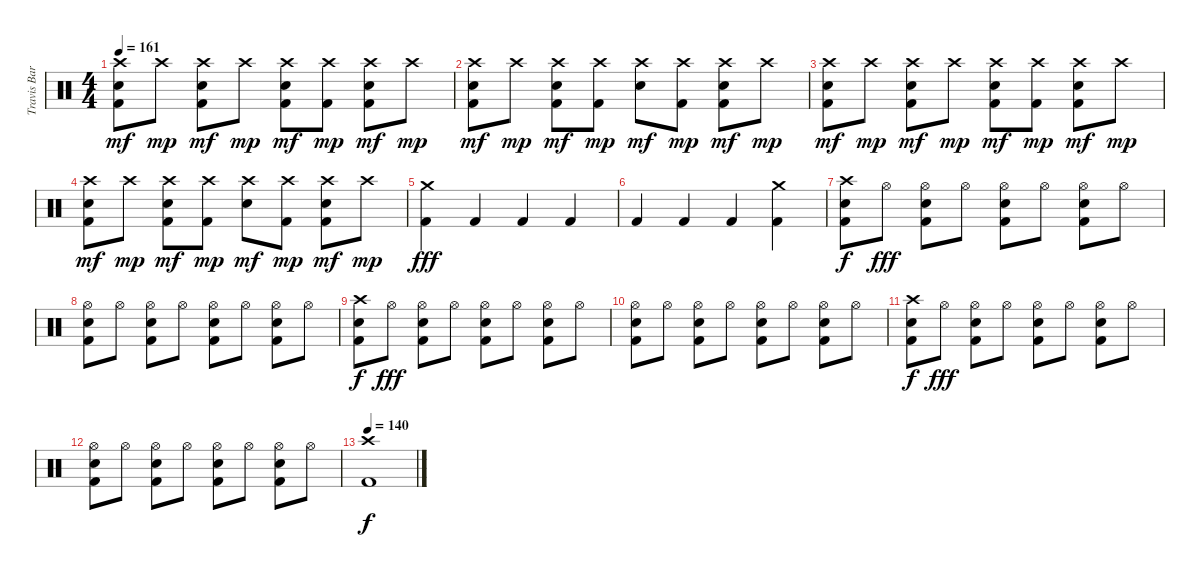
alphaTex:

\track ("Travis Barker - Drums" "Travis Bar") {instrument percussion}
\staff {score}
\articulation defaults
\ts (4 4)
\tempo 161
\clef neutral
\ks c
("Crash high (hit)" "Electric Snare (hit)" "Kick (hit) 2").8{dy mf} "Crash high (hit)".8{dy mp} ("Crash high (hit)" "Electric Snare (hit)" "Kick (hit) 2").8{dy mf} "Crash high (hit)".8{dy mp} ("Crash high (hit)" "Electric Snare (hit)" "Kick (hit) 2").8{dy mf} ("Crash high (hit)" "Kick (hit) 2").8{dy mp} ("Crash high (hit)" "Electric Snare (hit)" "Kick (hit) 2").8{dy mf} "Crash high (hit)".8{dy mp} |
("Crash high (hit)" "Electric Snare (hit)" "Kick (hit) 2").8{dy mf} "Crash high (hit)".8{dy mp} ("Crash high (hit)" "Electric Snare (hit)" "Kick (hit) 2").8{dy mf} ("Crash high (hit)" "Kick (hit) 2").8{dy mp} ("Crash high (hit)" "Electric Snare (hit)").8{dy mf} ("Crash high (hit)" "Kick (hit) 2").8{dy mp} ("Crash high (hit)" "Electric Snare (hit)" "Kick (hit) 2").8{dy mf} "Crash high (hit)".8{dy mp} |
("Crash high (hit)" "Electric Snare (hit)" "Kick (hit) 2").8{dy mf} "Crash high (hit)".8{dy mp} ("Crash high (hit)" "Electric Snare (hit)" "Kick (hit) 2").8{dy mf} "Crash high (hit)".8{dy mp} ("Crash high (hit)" "Electric Snare (hit)" "Kick (hit) 2").8{dy mf} ("Crash high (hit)" "Kick (hit) 2").8{dy mp} ("Crash high (hit)" "Electric Snare (hit)" "Kick (hit) 2").8{dy mf} "Crash high (hit)".8{dy mp} |
("Crash high (hit)" "Electric Snare (hit)" "Kick (hit) 2").8{dy mf} "Crash high (hit)".8{dy mp} ("Crash high (hit)" "Electric Snare (hit)" "Kick (hit) 2").8{dy mf} ("Crash high (hit)" "Kick (hit) 2").8{dy mp} ("Crash high (hit)" "Electric Snare (hit)").8{dy mf} ("Crash high (hit)" "Kick (hit) 2").8{dy mp} ("Crash high (hit)" "Electric Snare (hit)" "Kick (hit) 2").8{dy mf} "Crash high (hit)".8{dy mp} |
("Crash medium (hit)" "Kick (hit) 2").4{dy fff} "Kick (hit) 2".4 "Kick (hit) 2".4 "Kick (hit) 2".4 |
"Kick (hit) 2".4 "Kick (hit) 2".4 "Kick (hit) 2".4 ("Crash medium (hit)" "Kick (hit) 2").4 |
("Crash high (hit)" "Electric Snare (hit)" "Kick (hit) 2").8{dy f} "Hi-Hat (open)".8{dy fff} ("Hi-Hat (open)" "Electric Snare (hit)" "Kick (hit) 2").8 "Hi-Hat (open)".8 ("Hi-Hat (open)" "Electric Snare (hit)" "Kick (hit) 2").8 "Hi-Hat (open)".8 ("Hi-Hat (open)" "Electric Snare (hit)" "Kick (hit) 2").8 "Hi-Hat (open)".8 |
("Hi-Hat (open)" "Electric Snare (hit)" "Kick (hit) 2").8 "Hi-Hat (open)".8 ("Hi-Hat (open)" "Electric Snare (hit)" "Kick (hit) 2").8 "Hi-Hat (open)".8 ("Hi-Hat (open)" "Electric Snare (hit)" "Kick (hit) 2").8 "Hi-Hat (open)".8 ("Hi-Hat (open)" "Electric Snare (hit)" "Kick (hit) 2").8 "Hi-Hat (open)".8 |
("Crash high (hit)" "Electric Snare (hit)" "Kick (hit) 2").8{dy f} "Hi-Hat (open)".8{dy fff} ("Hi-Hat (open)" "Electric Snare (hit)" "Kick (hit) 2").8 "Hi-Hat (open)".8 ("Hi-Hat (open)" "Electric Snare (hit)" "Kick (hit) 2").8 "Hi-Hat (open)".8 ("Hi-Hat (open)" "Electric Snare (hit)" "Kick (hit) 2").8 "Hi-Hat (open)".8 |
("Hi-Hat (open)" "Electric Snare (hit)" "Kick (hit) 2").8 "Hi-Hat (open)".8 ("Hi-Hat (open)" "Electric Snare (hit)" "Kick (hit) 2").8 "Hi-Hat (open)".8 ("Hi-Hat (open)" "Electric Snare (hit)" "Kick (hit) 2").8 "Hi-Hat (open)".8 ("Hi-Hat (open)" "Electric Snare (hit)" "Kick (hit) 2").8 "Hi-Hat (open)".8 |
("Crash high (hit)" "Electric Snare (hit)" "Kick (hit) 2").8{dy f} "Hi-Hat (open)".8{dy fff} ("Hi-Hat (open)" "Electric Snare (hit)" "Kick (hit) 2").8 "Hi-Hat (open)".8 ("Hi-Hat (open)" "Electric Snare (hit)" "Kick (hit) 2").8 "Hi-Hat (open)".8 ("Hi-Hat (open)" "Electric Snare (hit)" "Kick (hit) 2").8 "Hi-Hat (open)".8 |
("Hi-Hat (open)" "Electric Snare (hit)" "Kick (hit) 2").8 "Hi-Hat (open)".8 ("Hi-Hat (open)" "Electric Snare (hit)" "Kick (hit) 2").8 "Hi-Hat (open)".8 ("Hi-Hat (open)" "Electric Snare (hit)" "Kick (hit) 2").8 "Hi-Hat (open)".8 ("Hi-Hat (open)" "Electric Snare (hit)" "Kick (hit) 2").8 "Hi-Hat (open)".8 |
\tempo 140
("Crash high (hit)" "Kick (hit) 2").1{dy f}
